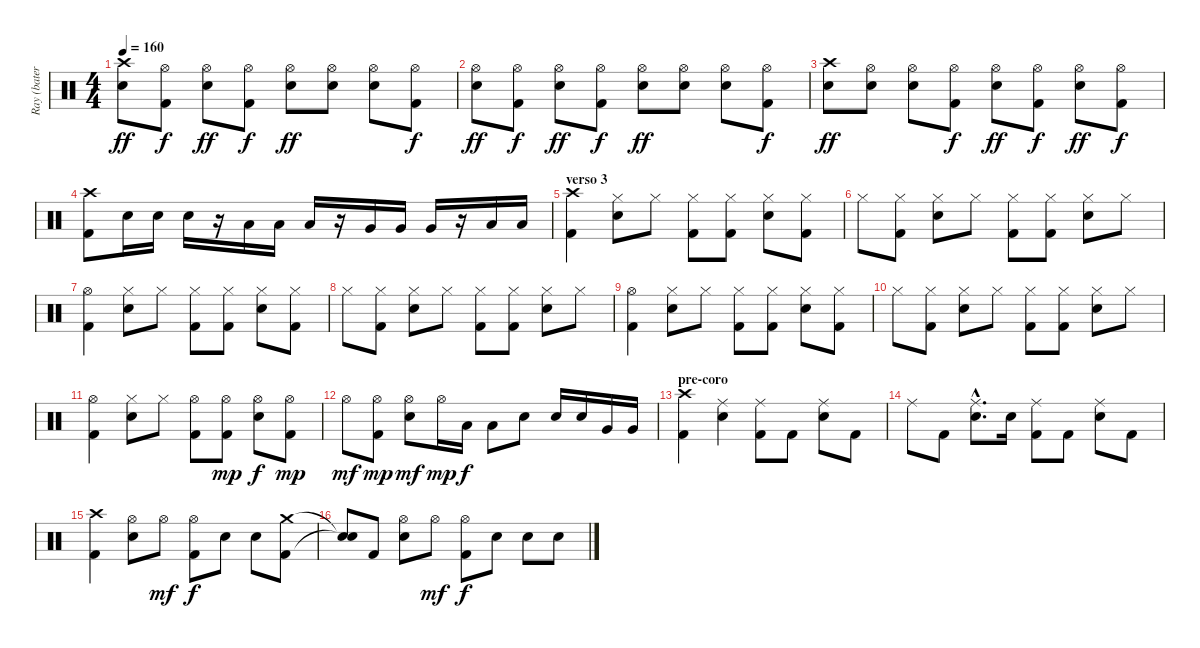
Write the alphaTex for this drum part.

\track ("Ray (batería)" "Ray (bater") {instrument percussion}
\staff {score}
\articulation defaults
\ts (4 4)
\tempo 160
\clef neutral
\ks c
("Crash high (hit)" "Snare (hit) 2").8{dy ff} ("Hi-Hat (open)" "Kick (hit) 2").8{dy f} ("Hi-Hat (open)" "Snare (hit) 2").8{dy ff} ("Hi-Hat (open)" "Kick (hit) 2").8{dy f} ("Hi-Hat (open)" "Snare (hit) 2").8{dy ff} ("Hi-Hat (open)" "Snare (hit) 2").8 ("Hi-Hat (open)" "Snare (hit) 2").8 ("Hi-Hat (open)" "Kick (hit) 2").8{dy f} |
("Hi-Hat (open)" "Snare (hit) 2").8{dy ff} ("Hi-Hat (open)" "Kick (hit) 2").8{dy f} ("Hi-Hat (open)" "Snare (hit) 2").8{dy ff} ("Hi-Hat (open)" "Kick (hit) 2").8{dy f} ("Hi-Hat (open)" "Snare (hit) 2").8{dy ff} ("Hi-Hat (open)" "Snare (hit) 2").8 ("Hi-Hat (open)" "Snare (hit) 2").8 ("Hi-Hat (open)" "Kick (hit) 2").8{dy f} |
("Crash high (hit)" "Snare (hit) 2").8{dy ff} ("Hi-Hat (open)" "Snare (hit) 2").8 ("Hi-Hat (open)" "Snare (hit) 2").8 ("Hi-Hat (open)" "Kick (hit) 2").8{dy f} ("Hi-Hat (open)" "Snare (hit) 2").8{dy ff} ("Hi-Hat (open)" "Kick (hit) 2").8{dy f} ("Hi-Hat (open)" "Snare (hit) 2").8{dy ff} ("Hi-Hat (open)" "Kick (hit) 2").8{dy f} |
("Crash high (hit)" "Kick (hit) 2").8 "Snare (hit) 2".16 "Snare (hit) 2".16 "Snare (hit) 2".16 r.16 "Low Tom (hit)".16 "Low Tom (hit)".16 "Low Tom (hit)".16 r.16 "Very Low Tom (hit)".16 "Very Low Tom (hit)".16 "Very Low Tom (hit)".16 r.16 "Low Floor Tom (hit)".16 "Low Floor Tom (hit)".16 |
\section ("" "verso 3")
("Crash high (hit)" "Kick (hit) 2").4 ("Hi-Hat (closed)" "Snare (hit) 2").8 "Hi-Hat (closed)".8 ("Hi-Hat (closed)" "Kick (hit) 2").8 ("Hi-Hat (closed)" "Kick (hit) 2").8 ("Hi-Hat (closed)" "Snare (hit) 2").8 ("Hi-Hat (closed)" "Kick (hit) 2").8 |
"Hi-Hat (closed)".8 ("Hi-Hat (closed)" "Kick (hit) 2").8 ("Hi-Hat (closed)" "Snare (hit) 2").8 "Hi-Hat (closed)".8 ("Hi-Hat (closed)" "Kick (hit) 2").8 ("Hi-Hat (closed)" "Kick (hit) 2").8 ("Hi-Hat (closed)" "Snare (hit) 2").8 "Hi-Hat (closed)".8 |
("Hi-Hat (open)" "Kick (hit) 2").4 ("Hi-Hat (closed)" "Snare (hit) 2").8 "Hi-Hat (closed)".8 ("Hi-Hat (closed)" "Kick (hit) 2").8 ("Hi-Hat (closed)" "Kick (hit) 2").8 ("Hi-Hat (closed)" "Snare (hit) 2").8 ("Hi-Hat (closed)" "Kick (hit) 2").8 |
"Hi-Hat (closed)".8 ("Hi-Hat (closed)" "Kick (hit) 2").8 ("Hi-Hat (closed)" "Snare (hit) 2").8 "Hi-Hat (closed)".8 ("Hi-Hat (closed)" "Kick (hit) 2").8 ("Hi-Hat (closed)" "Kick (hit) 2").8 ("Hi-Hat (closed)" "Snare (hit) 2").8 "Hi-Hat (closed)".8 |
("Hi-Hat (open)" "Kick (hit) 2").4 ("Hi-Hat (closed)" "Snare (hit) 2").8 "Hi-Hat (closed)".8 ("Hi-Hat (closed)" "Kick (hit) 2").8 ("Hi-Hat (closed)" "Kick (hit) 2").8 ("Hi-Hat (closed)" "Snare (hit) 2").8 ("Hi-Hat (closed)" "Kick (hit) 2").8 |
"Hi-Hat (closed)".8 ("Hi-Hat (closed)" "Kick (hit) 2").8 ("Hi-Hat (closed)" "Snare (hit) 2").8 "Hi-Hat (closed)".8 ("Hi-Hat (closed)" "Kick (hit) 2").8 ("Hi-Hat (closed)" "Kick (hit) 2").8 ("Hi-Hat (closed)" "Snare (hit) 2").8 "Hi-Hat (closed)".8 |
("Hi-Hat (open)" "Kick (hit) 2").4 ("Hi-Hat (closed)" "Snare (hit) 2").8 "Hi-Hat (closed)".8 ("Hi-Hat (open)" "Kick (hit) 2").8 ("Hi-Hat (open)" "Kick (hit) 2").8{dy mp} ("Hi-Hat (open)" "Snare (hit) 2").8{dy f} ("Hi-Hat (open)" "Kick (hit) 2").8{dy mp} |
"Hi-Hat (open)".8{dy mf} ("Hi-Hat (open)" "Kick (hit) 2").8{dy mp} ("Hi-Hat (open)" "Snare (hit) 2").8{dy mf} "Hi-Hat (open)".16{dy mp} "Low Tom (hit)".16{dy f} "Low Tom (hit)".8 "Snare (hit) 2".8 "Snare (hit) 2".16 "Snare (hit) 2".16 "Very Low Tom (hit)".16 "Very Low Tom (hit)".16 |
\section ("" "pre-coro")
("Crash high (hit)" "Kick (hit) 2").4 ("Ride (middle)" "Snare (hit) 2").4 ("Ride (middle)" "Kick (hit) 2").8 "Kick (hit) 2".8 ("Ride (middle)" "Snare (hit) 2").8 "Kick (hit) 2".8 |
"Ride (middle)".8 "Kick (hit) 2".8 ("Ride (middle)"{hac} "Snare (hit) 2"{hac}).8{d} "Snare (hit) 2".16 ("Ride (middle)" "Kick (hit) 2").8 "Kick (hit) 2".8 ("Ride (middle)" "Snare (hit) 2").8 "Kick (hit) 2".8 |
("Crash high (hit)" "Kick (hit) 2").4 ("Hi-Hat (open)" "Snare (hit) 2").8 "Hi-Hat (open)".8{dy mf} ("Hi-Hat (open)" "Kick (hit) 2").8{dy f} "Snare (hit) 2".8 "Snare (hit) 2".8 ("Crash medium (hit)" "Kick (hit) 2").8 |
("Snare (hit)"{t} "Snare (hit)"{t}).8 "Kick (hit) 2".8 ("Hi-Hat (open)" "Snare (hit) 2").8 "Hi-Hat (open)".8{dy mf} ("Hi-Hat (open)" "Kick (hit) 2").8{dy f} "Snare (hit) 2".8 "Snare (hit) 2".8 "Snare (hit) 2".8
